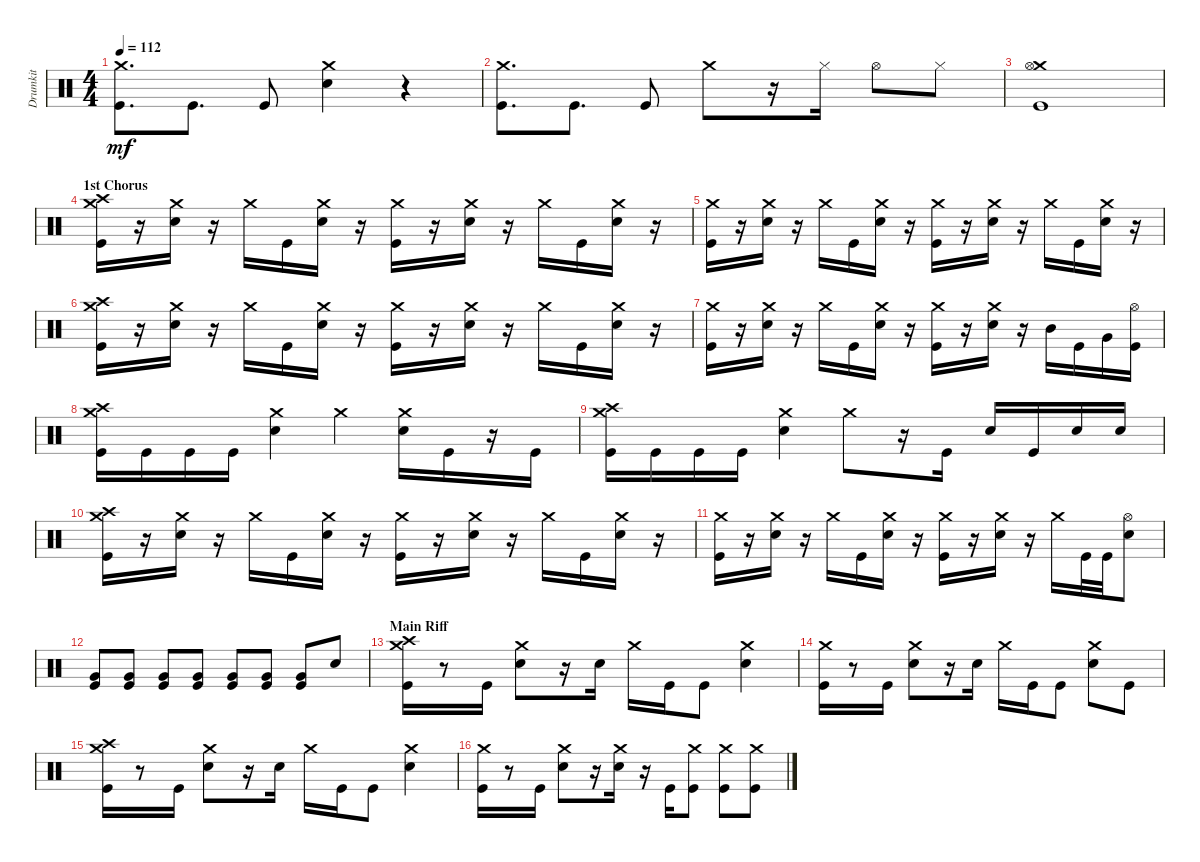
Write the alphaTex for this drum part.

\track ("Drumkit" "Drumkit") {instrument percussion}
\staff {score}
\articulation defaults
\ts (4 4)
\tempo 112
\clef neutral
\ks c
("Kick (hit)" "Crash medium (hit)").8{d dy mf} "Kick (hit)".8{d} "Kick (hit)".8 ("Snare (hit) 2" "Crash medium (hit)").4 r.4 |
("Kick (hit)" "Crash medium (hit)").8{d} "Kick (hit)".8{d} "Kick (hit)".8 "Crash medium (hit)".8 r.16 "Hi-Hat (closed)".16 "Hi-Hat (open)".8 "Hi-Hat (closed)".8 |
("Kick (hit)" "Crash medium (hit)" "Hi-Hat (open)").1 |
\section ("" "1st Chorus")
("Kick (hit)" "Crash medium (hit)" "Crash high (hit)").16 r.16 ("Snare (hit) 2" "Crash medium (hit)").16 r.16 "Crash medium (hit)".16 "Kick (hit)".16 ("Snare (hit) 2" "Crash medium (hit)").16 r.16 ("Kick (hit)" "Crash medium (hit)").16 r.16 ("Snare (hit) 2" "Crash medium (hit)").16 r.16 "Crash medium (hit)".16 "Kick (hit)".16 ("Snare (hit) 2" "Crash medium (hit)").16 r.16 |
("Kick (hit)" "Crash medium (hit)").16 r.16 ("Snare (hit) 2" "Crash medium (hit)").16 r.16 "Crash medium (hit)".16 "Kick (hit)".16 ("Snare (hit) 2" "Crash medium (hit)").16 r.16 ("Kick (hit)" "Crash medium (hit)").16 r.16 ("Snare (hit) 2" "Crash medium (hit)").16 r.16 "Crash medium (hit)".16 "Kick (hit)".16 ("Snare (hit) 2" "Crash medium (hit)").16 r.16 |
("Kick (hit)" "Crash medium (hit)" "Crash high (hit)").16 r.16 ("Snare (hit) 2" "Crash medium (hit)").16 r.16 "Crash medium (hit)".16 "Kick (hit)".16 ("Snare (hit) 2" "Crash medium (hit)").16 r.16 ("Kick (hit)" "Crash medium (hit)").16 r.16 ("Snare (hit) 2" "Crash medium (hit)").16 r.16 "Crash medium (hit)".16 "Kick (hit)".16 ("Snare (hit) 2" "Crash medium (hit)").16 r.16 |
("Kick (hit)" "Crash medium (hit)").16 r.16 ("Snare (hit) 2" "Crash medium (hit)").16 r.16 "Crash medium (hit)".16 "Kick (hit)".16 ("Snare (hit) 2" "Crash medium (hit)").16 r.16 ("Kick (hit)" "Crash medium (hit)").16 r.16 ("Snare (hit) 2" "Crash medium (hit)").16 r.16 "Mid Tom (hit)".16 "Kick (hit)".16 "Very Low Tom (hit)".16 ("Kick (hit)" "Hi-Hat (open)").16 |
("Kick (hit)" "Crash medium (hit)" "Crash high (hit)").16 "Kick (hit)".16 "Kick (hit)".16 "Kick (hit)".16 ("Snare (hit) 2" "Crash medium (hit)").4 "Crash medium (hit)".4 ("Crash medium (hit)" "Snare (hit) 2").16 "Kick (hit)".16 r.16 "Kick (hit)".16 |
("Kick (hit)" "Crash medium (hit)" "Crash high (hit)").16 "Kick (hit)".16 "Kick (hit)".16 "Kick (hit)".16 ("Snare (hit) 2" "Crash medium (hit)").4 "Crash medium (hit)".8 r.16 "Kick (hit)".16 "Snare (hit) 2".16 "Kick (hit)".16 "Snare (hit) 2".16 "Snare (hit) 2".16 |
("Kick (hit)" "Crash medium (hit)" "Crash high (hit)").16 r.16 ("Snare (hit) 2" "Crash medium (hit)").16 r.16 "Crash medium (hit)".16 "Kick (hit)".16 ("Snare (hit) 2" "Crash medium (hit)").16 r.16 ("Kick (hit)" "Crash medium (hit)").16 r.16 ("Snare (hit) 2" "Crash medium (hit)").16 r.16 "Crash medium (hit)".16 "Kick (hit)".16 ("Snare (hit) 2" "Crash medium (hit)").16 r.16 |
("Kick (hit)" "Crash medium (hit)").16 r.16 ("Snare (hit) 2" "Crash medium (hit)").16 r.16 "Crash medium (hit)".16 "Kick (hit)".16 ("Snare (hit) 2" "Crash medium (hit)").16 r.16 ("Kick (hit)" "Crash medium (hit)").16 r.16 ("Snare (hit) 2" "Crash medium (hit)").16 r.16 "Crash medium (hit)".16 "Kick (hit)".32 "Kick (hit)".32 ("Snare (hit) 2" "Hi-Hat (open)").8 |
("Very Low Tom (hit)" "Kick (hit)").8 ("Very Low Tom (hit)" "Kick (hit)").8 ("Very Low Tom (hit)" "Kick (hit)").8 ("Very Low Tom (hit)" "Kick (hit)").8 ("Very Low Tom (hit)" "Kick (hit)").8 ("Very Low Tom (hit)" "Kick (hit)").8 ("Very Low Tom (hit)" "Kick (hit)").8 "Snare (hit) 2".8 |
\section ("" "Main Riff")
("Kick (hit)" "Crash high (hit)" "Crash medium (hit)").16 r.8 "Kick (hit)".16 ("Snare (hit) 2" "Crash medium (hit)").8 r.16 "Snare (hit) 2".16 "Crash medium (hit)".16 "Kick (hit)".16 "Kick (hit)".8 ("Snare (hit) 2" "Crash medium (hit)").4 |
("Kick (hit)" "Crash medium (hit)").16 r.8 "Kick (hit)".16 ("Snare (hit) 2" "Crash medium (hit)").8 r.16 "Snare (hit) 2".16 "Crash medium (hit)".16 "Kick (hit)".16 "Kick (hit)".8 ("Snare (hit) 2" "Crash medium (hit)").8 "Kick (hit)".8 |
("Kick (hit)" "Crash high (hit)" "Crash medium (hit)").16 r.8 "Kick (hit)".16 ("Snare (hit) 2" "Crash medium (hit)").8 r.16 "Snare (hit) 2".16 "Crash medium (hit)".16 "Kick (hit)".16 "Kick (hit)".8 ("Snare (hit) 2" "Crash medium (hit)").4 |
("Kick (hit)" "Crash medium (hit)").16 r.8 "Kick (hit)".16 ("Snare (hit) 2" "Crash medium (hit)").8 r.16 ("Snare (hit) 2" "Crash medium (hit)").16 r.16 "Kick (hit)".16 ("Kick (hit)" "Crash medium (hit)").8 ("Crash medium (hit)" "Kick (hit)").8 ("Kick (hit)" "Crash medium (hit)").8
